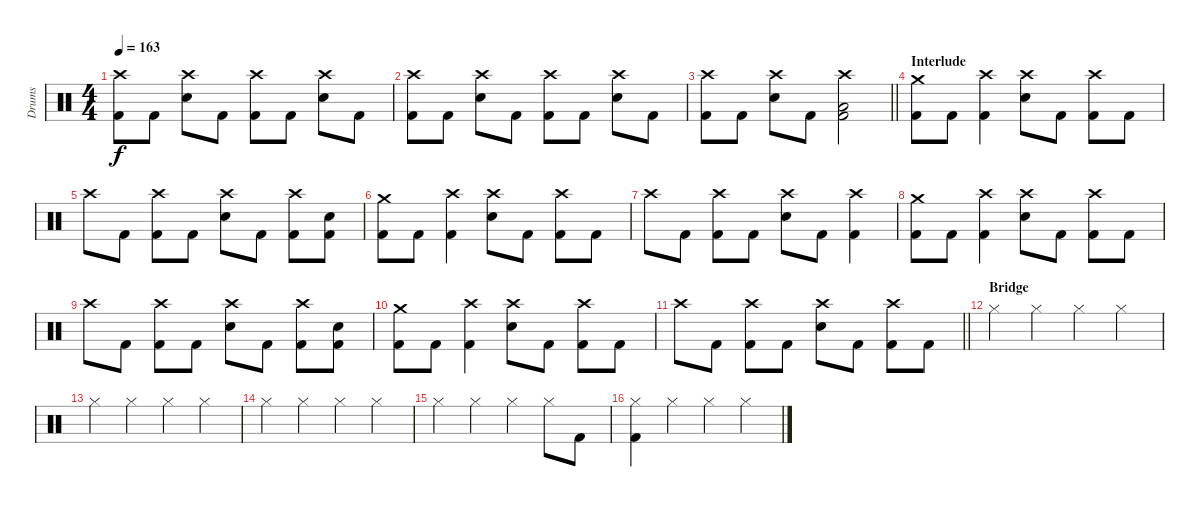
\track ("Drums" "Drums") {instrument percussion}
\staff {score}
\articulation defaults
\ts (4 4)
\tempo 163
\clef neutral
\ks c
("Crash high (hit)" "Kick (hit) 2").8{dy f} "Kick (hit) 2".8 ("Crash high (hit)" "Snare (hit) 2").8 "Kick (hit) 2".8 ("Crash high (hit)" "Kick (hit) 2").8 "Kick (hit) 2".8 ("Crash high (hit)" "Snare (hit) 2").8 "Kick (hit) 2".8 |
("Crash high (hit)" "Kick (hit) 2").8 "Kick (hit) 2".8 ("Crash high (hit)" "Snare (hit) 2").8 "Kick (hit) 2".8 ("Crash high (hit)" "Kick (hit) 2").8 "Kick (hit) 2".8 ("Crash high (hit)" "Snare (hit) 2").8 "Kick (hit) 2".8 |
\barLineRight lightlight
("Crash high (hit)" "Kick (hit) 2").8 "Kick (hit) 2".8 ("Crash high (hit)" "Snare (hit) 2").8 "Kick (hit) 2".8 ("Crash high (hit)" "Low Floor Tom (hit)" "Kick (hit) 2").2 |
\section ("" "Interlude")
("Crash medium (hit)" "Kick (hit) 2").8 "Kick (hit) 2".8 ("Crash high (hit)" "Kick (hit) 2").4 ("Crash high (hit)" "Snare (hit) 2").8 "Kick (hit) 2".8 ("Crash high (hit)" "Kick (hit) 2").8 "Kick (hit) 2".8 |
"Crash high (hit)".8 "Kick (hit) 2".8 ("Crash high (hit)" "Kick (hit) 2").8 "Kick (hit) 2".8 ("Crash high (hit)" "Snare (hit) 2").8 "Kick (hit) 2".8 ("Crash high (hit)" "Kick (hit) 2").8 ("Snare (hit) 2" "Kick (hit) 2").8 |
("Crash medium (hit)" "Kick (hit) 2").8 "Kick (hit) 2".8 ("Crash high (hit)" "Kick (hit) 2").4 ("Crash high (hit)" "Snare (hit) 2").8 "Kick (hit) 2".8 ("Crash high (hit)" "Kick (hit) 2").8 "Kick (hit) 2".8 |
"Crash high (hit)".8 "Kick (hit) 2".8 ("Crash high (hit)" "Kick (hit) 2").8 "Kick (hit) 2".8 ("Crash high (hit)" "Snare (hit) 2").8 "Kick (hit) 2".8 ("Crash high (hit)" "Kick (hit) 2").4 |
("Crash medium (hit)" "Kick (hit) 2").8 "Kick (hit) 2".8 ("Crash high (hit)" "Kick (hit) 2").4 ("Crash high (hit)" "Snare (hit) 2").8 "Kick (hit) 2".8 ("Crash high (hit)" "Kick (hit) 2").8 "Kick (hit) 2".8 |
"Crash high (hit)".8 "Kick (hit) 2".8 ("Crash high (hit)" "Kick (hit) 2").8 "Kick (hit) 2".8 ("Crash high (hit)" "Snare (hit) 2").8 "Kick (hit) 2".8 ("Crash high (hit)" "Kick (hit) 2").8 ("Snare (hit) 2" "Kick (hit) 2").8 |
("Crash medium (hit)" "Kick (hit) 2").8 "Kick (hit) 2".8 ("Crash high (hit)" "Kick (hit) 2").4 ("Crash high (hit)" "Snare (hit) 2").8 "Kick (hit) 2".8 ("Crash high (hit)" "Kick (hit) 2").8 "Kick (hit) 2".8 |
\barLineRight lightlight "Crash high (hit)".8 "Kick (hit) 2".8
("Crash high (hit)" "Kick (hit) 2").8 "Kick (hit) 2".8 ("Crash high (hit)" "Snare (hit) 2").8 "Kick (hit) 2".8 ("Crash high (hit)" "Kick (hit) 2").8 "Kick (hit) 2".8 |
\section ("" "Bridge")
"Hi-Hat (closed)".4 "Hi-Hat (closed)".4 "Hi-Hat (closed)".4 "Hi-Hat (closed)".4 |
"Hi-Hat (closed)".4 "Hi-Hat (closed)".4 "Hi-Hat (closed)".4 "Hi-Hat (closed)".4 |
"Hi-Hat (closed)".4 "Hi-Hat (closed)".4 "Hi-Hat (closed)".4 "Hi-Hat (closed)".4 |
"Hi-Hat (closed)".4 "Hi-Hat (closed)".4 "Hi-Hat (closed)".4 "Hi-Hat (closed)".8 "Kick (hit) 2".8 |
("Hi-Hat (closed)" "Kick (hit) 2").4 "Hi-Hat (closed)".4 "Hi-Hat (closed)".4 "Hi-Hat (closed)".4
